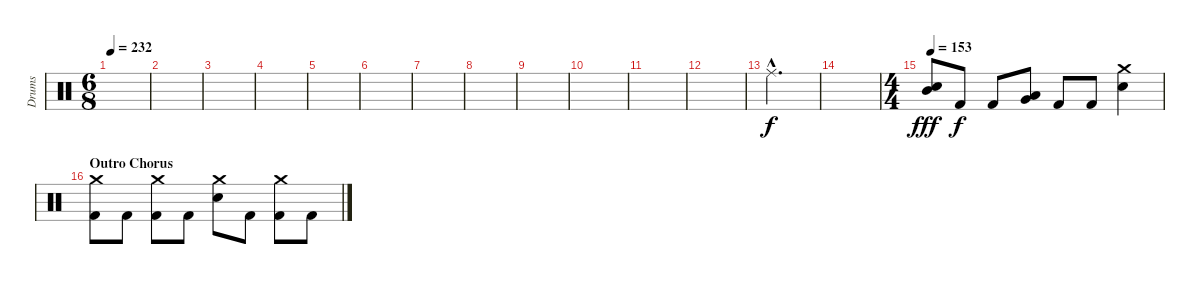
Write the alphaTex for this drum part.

\track ("Drums" "Drums") {instrument percussion}
\staff {score}
\articulation defaults
\ts (6 8)
\tempo 232
\clef neutral
\ks c
|
|
|
|
|
|
|
|
|
|
|
|
"Ride (middle)"{hac}.2{d} |
|
\ts (4 4)
\tempo 153
("Mid Tom (hit)" "Snare (hit) 2").8{dy fff} "Kick (hit) 2".8{dy f} "Kick (hit) 2".8 ("Very Low Tom (hit)" "Low Tom (hit)").8 "Kick (hit) 2".8 "Kick (hit) 2".8 ("Crash medium (hit)" "Snare (hit) 2").4 |
\section ("" "Outro Chorus")
("Crash medium (hit)" "Kick (hit) 2").8 "Kick (hit) 2".8 ("Crash medium (hit)" "Kick (hit) 2").8 "Kick (hit) 2".8 ("Crash medium (hit)" "Snare (hit) 2").8 "Kick (hit) 2".8 ("Crash medium (hit)" "Kick (hit) 2").8 "Kick (hit) 2".8
